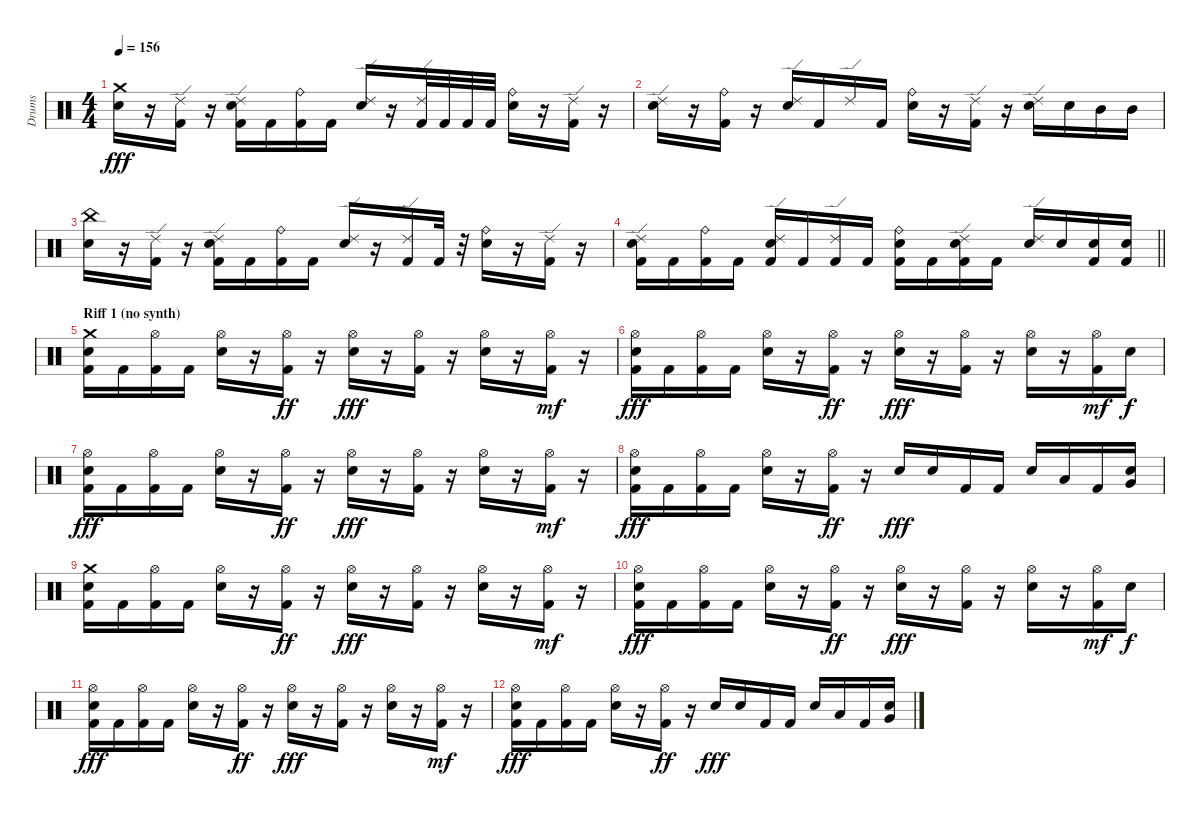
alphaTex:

\track ("Drums" "Drums") {instrument percussion}
\staff {score}
\articulation defaults
\ts (4 4)
\tempo 156
\clef neutral
\ks c
("Snare (hit) 2" "Crash medium (hit)").16{dy fff} r.16 ("Kick (hit) 2" "Ride (edge) 2").16 r.16 ("Kick (hit) 2" "Snare (hit) 2" "Ride (edge) 2").16 "Kick (hit) 2".16 ("Kick (hit) 2" "Ride (bell)").16 "Kick (hit) 2".16 ("Snare (hit) 2" "Ride (edge) 2").16 r.16 ("Kick (hit) 2" "Ride (edge) 2").32 "Kick (hit) 2".32 "Kick (hit) 2".32 "Kick (hit) 2".32 ("Snare (hit) 2" "Ride (bell)").16 r.16 ("Kick (hit) 2" "Ride (edge) 2").16 r.16 |
("Snare (hit) 2" "Ride (edge) 2").16 r.16 ("Kick (hit) 2" "Ride (bell)").16 r.16 ("Snare (hit) 2" "Ride (edge) 2").16 "Kick (hit) 2".16 "Ride (edge) 2".16 "Kick (hit) 2".16 ("Snare (hit) 2" "Ride (bell)").16 r.16 ("Kick (hit) 2" "Ride (edge) 2").16 r.16 ("Snare (hit) 2" "Ride (edge) 2").16 "Snare (hit) 2".16 "Mid Tom (hit)".16 "Mid Tom (hit)".16 |
("Snare (hit) 2" "China (hit)").16 r.16 ("Kick (hit) 2" "Ride (edge) 2").16 r.16 ("Kick (hit) 2" "Snare (hit) 2" "Ride (edge) 2").16 "Kick (hit) 2".16 ("Kick (hit) 2" "Ride (bell)").16 "Kick (hit) 2".16 ("Snare (hit) 2" "Ride (edge) 2").16 r.16 ("Kick (hit) 2" "Ride (edge) 2").16 "Kick (hit) 2".32 r.32 ("Snare (hit) 2" "Ride (bell)").16 r.16 ("Kick (hit) 2" "Ride (edge) 2").16 r.16 |
\barLineRight lightlight
("Kick (hit) 2" "Snare (hit) 2" "Ride (edge) 2").16 "Kick (hit) 2".16 ("Kick (hit) 2" "Ride (bell)").16 "Kick (hit) 2".16 ("Kick (hit) 2" "Snare (hit) 2" "Ride (edge) 2").16 "Kick (hit) 2".16 ("Kick (hit) 2" "Ride (edge) 2").16 "Kick (hit) 2".16 ("Kick (hit) 2" "Snare (hit) 2" "Ride (bell)").16 "Kick (hit) 2".16 ("Kick (hit) 2" "Snare (hit) 2" "Ride (edge) 2").16 "Kick (hit) 2".16 ("Snare (hit) 2" "Ride (edge) 2").16 "Snare (hit) 2".16 ("Kick (hit) 2" "Snare (hit) 2").16 ("Kick (hit) 2" "Snare (hit) 2").16 |
\section ("" "Riff 1 (no synth)")
("Kick (hit) 2" "Snare (hit) 2" "Crash medium (hit)").16 "Kick (hit) 2".16 ("Kick (hit) 2" "Hi-Hat (open)").16 "Kick (hit) 2".16 ("Snare (hit) 2" "Hi-Hat (open)").16 r.16 ("Kick (hit) 2" "Hi-Hat (open)").16{dy ff} r.16 ("Snare (hit) 2" "Hi-Hat (open)").16{dy fff} r.16 ("Kick (hit) 2" "Hi-Hat (open)").16 r.16 ("Snare (hit) 2" "Hi-Hat (open)").16 r.16 ("Kick (hit) 2" "Hi-Hat (open)").16{dy mf} r.16 |
("Kick (hit) 2" "Snare (hit) 2" "Hi-Hat (open)").16{dy fff} "Kick (hit) 2".16 ("Kick (hit) 2" "Hi-Hat (open)").16 "Kick (hit) 2".16 ("Snare (hit) 2" "Hi-Hat (open)").16 r.16 ("Kick (hit) 2" "Hi-Hat (open)").16{dy ff} r.16 ("Snare (hit) 2" "Hi-Hat (open)").16{dy fff} r.16 ("Kick (hit) 2" "Hi-Hat (open)").16 r.16 ("Snare (hit) 2" "Hi-Hat (open)").16 r.16 ("Kick (hit) 2" "Hi-Hat (open)").16{dy mf} "Snare (hit) 2".16{dy f} |
("Kick (hit) 2" "Snare (hit) 2" "Hi-Hat (open)").16{dy fff} "Kick (hit) 2".16 ("Kick (hit) 2" "Hi-Hat (open)").16 "Kick (hit) 2".16 ("Snare (hit) 2" "Hi-Hat (open)").16 r.16 ("Kick (hit) 2" "Hi-Hat (open)").16{dy ff} r.16 ("Snare (hit) 2" "Hi-Hat (open)").16{dy fff} r.16 ("Kick (hit) 2" "Hi-Hat (open)").16 r.16 ("Snare (hit) 2" "Hi-Hat (open)").16 r.16 ("Kick (hit) 2" "Hi-Hat (open)").16{dy mf} r.16 |
("Kick (hit) 2" "Snare (hit) 2" "Hi-Hat (open)").16{dy fff} "Kick (hit) 2".16 ("Kick (hit) 2" "Hi-Hat (open)").16 "Kick (hit) 2".16 ("Snare (hit) 2" "Hi-Hat (open)").16 r.16 ("Kick (hit) 2" "Hi-Hat (open)").16{dy ff} r.16 "Snare (hit) 2".16{dy fff} "Snare (hit) 2".16 "Kick (hit) 2".16 "Kick (hit) 2".16 "Snare (hit) 2".16 "Low Tom (hit)".16 "Kick (hit) 2".16 ("Snare (hit) 2" "Very Low Tom (hit)").16 |
("Kick (hit) 2" "Snare (hit) 2" "Crash medium (hit)").16 "Kick (hit) 2".16 ("Kick (hit) 2" "Hi-Hat (open)").16 "Kick (hit) 2".16 ("Snare (hit) 2" "Hi-Hat (open)").16 r.16 ("Kick (hit) 2" "Hi-Hat (open)").16{dy ff} r.16 ("Snare (hit) 2" "Hi-Hat (open)").16{dy fff} r.16 ("Kick (hit) 2" "Hi-Hat (open)").16 r.16 ("Snare (hit) 2" "Hi-Hat (open)").16 r.16 ("Kick (hit) 2" "Hi-Hat (open)").16{dy mf} r.16 |
("Kick (hit) 2" "Snare (hit) 2" "Hi-Hat (open)").16{dy fff} "Kick (hit) 2".16 ("Kick (hit) 2" "Hi-Hat (open)").16 "Kick (hit) 2".16 ("Snare (hit) 2" "Hi-Hat (open)").16 r.16 ("Kick (hit) 2" "Hi-Hat (open)").16{dy ff} r.16 ("Snare (hit) 2" "Hi-Hat (open)").16{dy fff} r.16 ("Kick (hit) 2" "Hi-Hat (open)").16 r.16 ("Snare (hit) 2" "Hi-Hat (open)").16 r.16 ("Kick (hit) 2" "Hi-Hat (open)").16{dy mf} "Snare (hit) 2".16{dy f} |
("Kick (hit) 2" "Snare (hit) 2" "Hi-Hat (open)").16{dy fff} "Kick (hit) 2".16 ("Kick (hit) 2" "Hi-Hat (open)").16 "Kick (hit) 2".16 ("Snare (hit) 2" "Hi-Hat (open)").16 r.16 ("Kick (hit) 2" "Hi-Hat (open)").16{dy ff} r.16 ("Snare (hit) 2" "Hi-Hat (open)").16{dy fff} r.16 ("Kick (hit) 2" "Hi-Hat (open)").16 r.16 ("Snare (hit) 2" "Hi-Hat (open)").16 r.16 ("Kick (hit) 2" "Hi-Hat (open)").16{dy mf} r.16 |
("Kick (hit) 2" "Snare (hit) 2" "Hi-Hat (open)").16{dy fff} "Kick (hit) 2".16 ("Kick (hit) 2" "Hi-Hat (open)").16 "Kick (hit) 2".16 ("Snare (hit) 2" "Hi-Hat (open)").16 r.16 ("Kick (hit) 2" "Hi-Hat (open)").16{dy ff} r.16 "Snare (hit) 2".16{dy fff} "Snare (hit) 2".16 "Kick (hit) 2".16 "Kick (hit) 2".16 "Snare (hit) 2".16 "Low Tom (hit)".16 "Kick (hit) 2".16 ("Snare (hit) 2" "Very Low Tom (hit)").16
